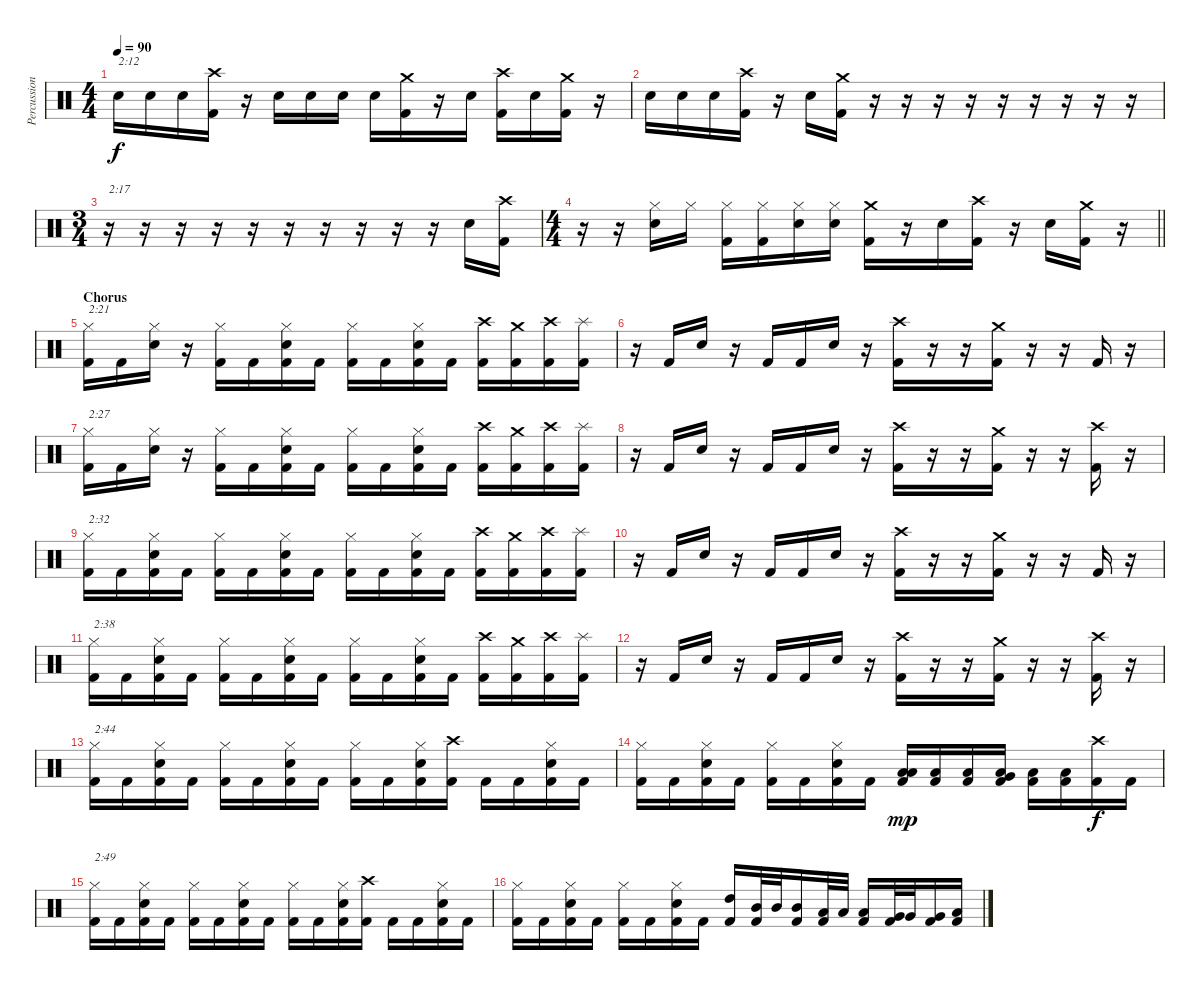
\track ("Percussion" "Percussion") {instrument percussion}
\staff {score}
\articulation defaults
\ts (4 4)
\tempo 90
\clef neutral
\ks c "Snare (hit) 2".16{txt "2:12" dy f} "Snare (hit) 2".16 "Snare (hit) 2".16
("Crash high (hit)" "Kick (hit) 2").16 r.16 "Snare (hit) 2".16 "Snare (hit) 2".16 "Snare (hit) 2".16 "Snare (hit) 2".16 ("Crash medium (hit)" "Kick (hit) 2").16 r.16 "Snare (hit) 2".16 ("Crash high (hit)" "Kick (hit) 2").16 "Snare (hit) 2".16 ("Crash medium (hit)" "Kick (hit) 2").16 r.16 |
"Snare (hit) 2".16 "Snare (hit) 2".16 "Snare (hit) 2".16 ("Crash high (hit)" "Kick (hit) 2").16 r.16 "Snare (hit) 2".16 ("Crash medium (hit)" "Kick (hit) 2").16 r.16 r.16 r.16 r.16 r.16 r.16 r.16 r.16 r.16 |
\ts (3 4)
r.16{txt "2:17"} r.16 r.16 r.16 r.16 r.16 r.16 r.16 r.16 r.16 "Snare (hit) 2".16 ("Crash high (hit)" "Kick (hit) 2").16 |
\ts (4 4)
\barLineRight lightlight
r.16 r.16 ("Hi-Hat (closed)" "Snare (hit) 2").16 "Hi-Hat (closed)".16 ("Hi-Hat (closed)" "Kick (hit) 2").16 ("Hi-Hat (closed)" "Kick (hit) 2").16 ("Hi-Hat (closed)" "Snare (hit) 2").16 ("Hi-Hat (closed)" "Snare (hit) 2").16 ("Crash medium (hit)" "Kick (hit) 2").16 r.16 "Snare (hit) 2".16 ("Crash high (hit)" "Kick (hit) 2").16 r.16 "Snare (hit) 2".16 ("Crash medium (hit)" "Kick (hit) 2").16 r.16 |
\section ("" "Chorus")
("Hi-Hat (closed)" "Kick (hit) 2").16{txt "2:21"} "Kick (hit) 2".16 ("Hi-Hat (closed)" "Snare (hit) 2").16 r.16 ("Hi-Hat (closed)" "Kick (hit) 2").16 "Kick (hit) 2".16 ("Hi-Hat (closed)" "Snare (hit) 2" "Kick (hit) 2").16 "Kick (hit) 2".16 ("Hi-Hat (closed)" "Kick (hit) 2").16 "Kick (hit) 2".16 ("Hi-Hat (closed)" "Snare (hit) 2" "Kick (hit) 2").16 "Kick (hit) 2".16 ("Crash high (hit)" "Kick (hit) 2").16 ("Crash medium (hit)" "Kick (hit) 2").16 ("Crash high (hit)" "Kick (hit) 2").16 ("Splash (hit)" "Kick (hit) 2").16 |
r.16 "Kick (hit) 2".16 "Snare (hit) 2".16 r.16 "Kick (hit) 2".16 "Kick (hit) 2".16 "Snare (hit) 2".16 r.16 ("Crash high (hit)" "Kick (hit) 2").16 r.16 r.16 ("Crash medium (hit)" "Kick (hit) 2").16 r.16 r.16 "Kick (hit) 2".16 r.16 |
("Hi-Hat (closed)" "Kick (hit) 2").16{txt "2:27"} "Kick (hit) 2".16 ("Hi-Hat (closed)" "Snare (hit) 2").16 r.16 ("Hi-Hat (closed)" "Kick (hit) 2").16 "Kick (hit) 2".16 ("Hi-Hat (closed)" "Snare (hit) 2" "Kick (hit) 2").16 "Kick (hit) 2".16 ("Hi-Hat (closed)" "Kick (hit) 2").16 "Kick (hit) 2".16 ("Hi-Hat (closed)" "Snare (hit) 2" "Kick (hit) 2").16 "Kick (hit) 2".16 ("Crash high (hit)" "Kick (hit) 2").16 ("Crash medium (hit)" "Kick (hit) 2").16 ("Crash high (hit)" "Kick (hit) 2").16 ("Splash (hit)" "Kick (hit) 2").16 |
r.16 "Kick (hit) 2".16 "Snare (hit) 2".16 r.16 "Kick (hit) 2".16 "Kick (hit) 2".16 "Snare (hit) 2".16 r.16 ("Crash high (hit)" "Kick (hit) 2").16 r.16 r.16 ("Crash medium (hit)" "Kick (hit) 2").16 r.16 r.16 ("Crash high (hit)" "Kick (hit) 2").16 r.16 |
("Hi-Hat (closed)" "Kick (hit) 2").16{txt "2:32"} "Kick (hit) 2".16 ("Hi-Hat (closed)" "Snare (hit) 2" "Kick (hit) 2").16 "Kick (hit) 2".16 ("Hi-Hat (closed)" "Kick (hit) 2").16 "Kick (hit) 2".16 ("Hi-Hat (closed)" "Snare (hit) 2" "Kick (hit) 2").16 "Kick (hit) 2".16 ("Hi-Hat (closed)" "Kick (hit) 2").16 "Kick (hit) 2".16 ("Hi-Hat (closed)" "Snare (hit) 2" "Kick (hit) 2").16 "Kick (hit) 2".16 ("Crash high (hit)" "Kick (hit) 2").16 ("Crash medium (hit)" "Kick (hit) 2").16 ("Crash high (hit)" "Kick (hit) 2").16 ("Splash (hit)" "Kick (hit) 2").16 |
r.16 "Kick (hit) 2".16 "Snare (hit) 2".16 r.16 "Kick (hit) 2".16 "Kick (hit) 2".16 "Snare (hit) 2".16 r.16 ("Crash high (hit)" "Kick (hit) 2").16 r.16 r.16 ("Crash medium (hit)" "Kick (hit) 2").16 r.16 r.16 "Kick (hit) 2".16 r.16 |
("Hi-Hat (closed)" "Kick (hit) 2").16{txt "2:38"} "Kick (hit) 2".16 ("Hi-Hat (closed)" "Snare (hit) 2" "Kick (hit) 2").16 "Kick (hit) 2".16 ("Hi-Hat (closed)" "Kick (hit) 2").16 "Kick (hit) 2".16 ("Hi-Hat (closed)" "Snare (hit) 2" "Kick (hit) 2").16 "Kick (hit) 2".16 ("Hi-Hat (closed)" "Kick (hit) 2").16 "Kick (hit) 2".16 ("Hi-Hat (closed)" "Snare (hit) 2" "Kick (hit) 2").16 "Kick (hit) 2".16 ("Crash high (hit)" "Kick (hit) 2").16 ("Crash medium (hit)" "Kick (hit) 2").16 ("Crash high (hit)" "Kick (hit) 2").16 ("Splash (hit)" "Kick (hit) 2").16 |
r.16 "Kick (hit) 2".16 "Snare (hit) 2".16 r.16 "Kick (hit) 2".16 "Kick (hit) 2".16 "Snare (hit) 2".16 r.16 ("Crash high (hit)" "Kick (hit) 2").16 r.16 r.16 ("Crash medium (hit)" "Kick (hit) 2").16 r.16 r.16 ("Crash high (hit)" "Kick (hit) 2").16 r.16 |
("Hi-Hat (closed)" "Kick (hit) 2").16{txt "2:44"} "Kick (hit) 2".16 ("Hi-Hat (closed)" "Snare (hit) 2" "Kick (hit) 2").16 "Kick (hit) 2".16 ("Hi-Hat (closed)" "Kick (hit) 2").16 "Kick (hit) 2".16 ("Hi-Hat (closed)" "Snare (hit) 2" "Kick (hit) 2").16 "Kick (hit) 2".16 ("Hi-Hat (closed)" "Kick (hit) 2").16 "Kick (hit) 2".16 ("Hi-Hat (closed)" "Snare (hit) 2" "Kick (hit) 2").16 ("Crash high (hit)" "Kick (hit) 2").16 "Kick (hit) 2".16 "Kick (hit) 2".16 ("Hi-Hat (closed)" "Snare (hit) 2" "Kick (hit) 2").16 "Kick (hit) 2".16 |
("Hi-Hat (closed)" "Kick (hit) 2").16 "Kick (hit) 2".16 ("Hi-Hat (closed)" "Snare (hit) 2" "Kick (hit) 2").16 "Kick (hit) 2".16 ("Hi-Hat (closed)" "Kick (hit) 2").16 "Kick (hit) 2".16 ("Hi-Hat (closed)" "Snare (hit) 2" "Kick (hit) 2").16 "Kick (hit) 2".16 ("Low Tom (hit)" "Low Floor Tom (hit)" "Kick (hit) 2").16{dy mp} ("Low Floor Tom (hit)" "Kick (hit) 2").16 ("Low Floor Tom (hit)" "Kick (hit) 2").16 ("Very Low Tom (hit)" "Low Floor Tom (hit)" "Kick (hit) 2").16 ("Low Floor Tom (hit)" "Kick (hit) 2").16 ("Low Floor Tom (hit)" "Kick (hit) 2").16 ("Crash high (hit)" "Kick (hit) 2").16{dy f} "Kick (hit) 2".16 |
("Hi-Hat (closed)" "Kick (hit) 2").16{txt "2:49"} "Kick (hit) 2".16 ("Hi-Hat (closed)" "Snare (hit) 2" "Kick (hit) 2").16 "Kick (hit) 2".16 ("Hi-Hat (closed)" "Kick (hit) 2").16 "Kick (hit) 2".16 ("Hi-Hat (closed)" "Snare (hit) 2" "Kick (hit) 2").16 "Kick (hit) 2".16 ("Hi-Hat (closed)" "Kick (hit) 2").16 "Kick (hit) 2".16 ("Hi-Hat (closed)" "Snare (hit) 2" "Kick (hit) 2").16 ("Crash high (hit)" "Kick (hit) 2").16 "Kick (hit) 2".16 "Kick (hit) 2".16 ("Hi-Hat (closed)" "Snare (hit) 2" "Kick (hit) 2").16 "Kick (hit) 2".16 |
("Hi-Hat (closed)" "Kick (hit) 2").16 "Kick (hit) 2".16 ("Hi-Hat (closed)" "Snare (hit) 2" "Kick (hit) 2").16 "Kick (hit) 2".16 ("Hi-Hat (closed)" "Kick (hit) 2").16 "Kick (hit) 2".16 ("Hi-Hat (closed)" "Snare (hit) 2" "Kick (hit) 2").16 "Kick (hit) 2".16 ("High Tom (hit)" "Kick (hit) 2").16 ("Mid Tom (hit)" "Kick (hit) 2").32 "Mid Tom (hit)".32 ("Mid Tom (hit)" "Kick (hit) 2").16 ("Low Tom (hit)" "Kick (hit) 2").32 "Low Tom (hit)".32 ("Low Tom (hit)" "Kick (hit) 2").16 ("Very Low Tom (hit)" "Kick (hit) 2").32 "Very Low Tom (hit)".32 ("Very Low Tom (hit)" "Kick (hit) 2").16 ("Low Floor Tom (hit)" "Kick (hit) 2").16
